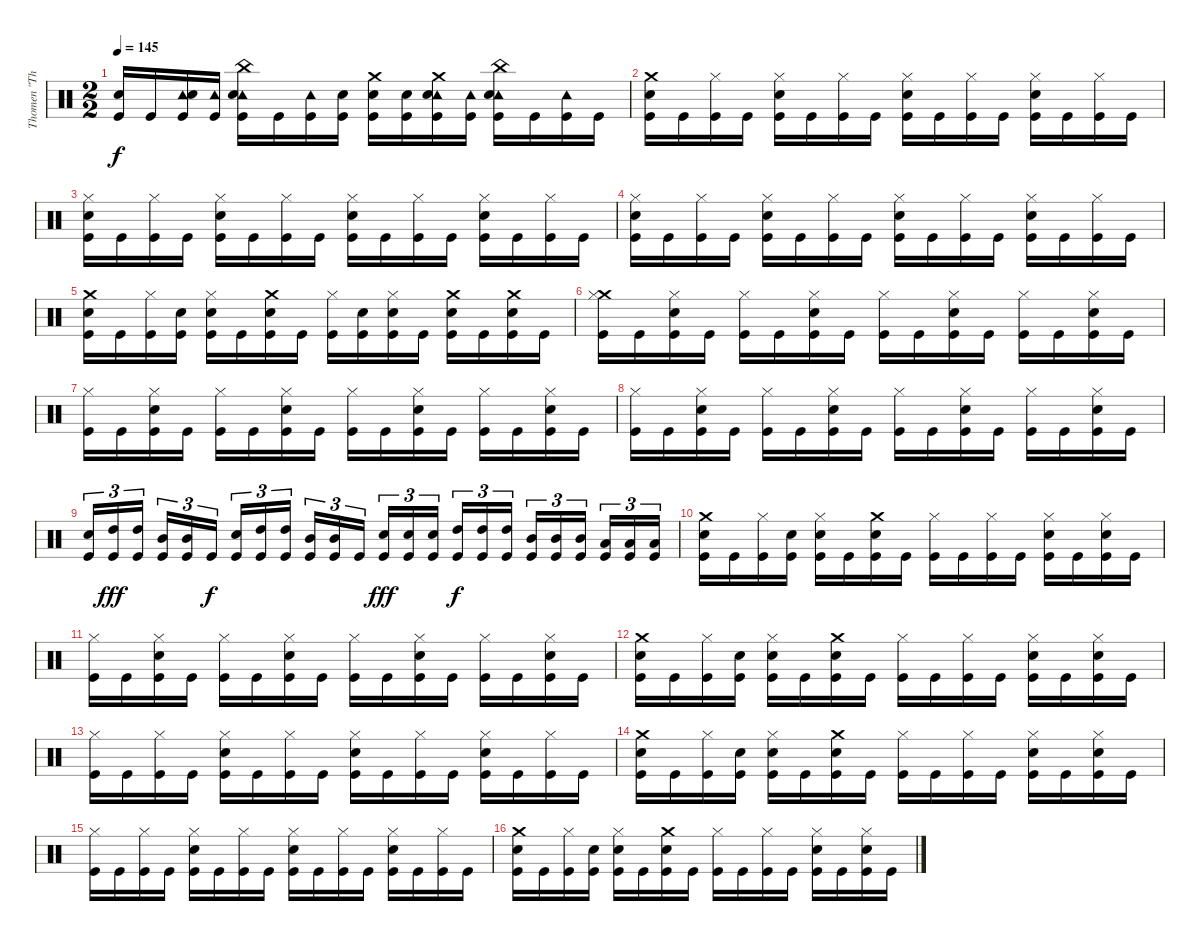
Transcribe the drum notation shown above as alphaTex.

\track ("Thomen \"The Omen\" Stauch" "Thomen \"Th") {instrument percussion}
\staff {score}
\articulation defaults
\ts (2 2)
\tempo 145
\clef neutral
\ks c
("Snare (hit) 2" "Kick (hit)").16{dy f} "Kick (hit)".16 ("Tambourine (hit)" "Snare (hit) 2" "Kick (hit)").16 ("Tambourine (hit)" "Kick (hit)").16 ("China (hit)" "Tambourine (hit)" "Snare (hit) 2" "Kick (hit)").16 "Kick (hit)".16 ("Tambourine (hit)" "Kick (hit)").16 ("Snare (hit) 2" "Kick (hit)").16 ("Crash medium (hit)" "Snare (hit) 2" "Kick (hit)").16 ("Snare (hit) 2" "Kick (hit)").16 ("Crash medium (hit)" "Tambourine (hit)" "Snare (hit) 2" "Kick (hit)").16 ("Tambourine (hit)" "Kick (hit)").16 ("China (hit)" "Tambourine (hit)" "Snare (hit) 2" "Kick (hit)").16 "Kick (hit)".16 ("Tambourine (hit)" "Kick (hit)").16 "Kick (hit)".16 |
("Crash medium (hit)" "Snare (hit) 2" "Kick (hit)").16 "Kick (hit)".16 ("Hi-Hat (closed)" "Kick (hit)").16 "Kick (hit)".16 ("Hi-Hat (closed)" "Snare (hit) 2" "Kick (hit)").16 "Kick (hit)".16 ("Hi-Hat (closed)" "Kick (hit)").16 "Kick (hit)".16 ("Hi-Hat (closed)" "Snare (hit) 2" "Kick (hit)").16 "Kick (hit)".16 ("Hi-Hat (closed)" "Kick (hit)").16 "Kick (hit)".16 ("Hi-Hat (closed)" "Snare (hit) 2" "Kick (hit)").16 "Kick (hit)".16 ("Hi-Hat (closed)" "Kick (hit)").16 "Kick (hit)".16 |
("Hi-Hat (closed)" "Snare (hit) 2" "Kick (hit)").16 "Kick (hit)".16 ("Hi-Hat (closed)" "Kick (hit)").16 "Kick (hit)".16 ("Hi-Hat (closed)" "Snare (hit) 2" "Kick (hit)").16 "Kick (hit)".16 ("Hi-Hat (closed)" "Kick (hit)").16 "Kick (hit)".16 ("Hi-Hat (closed)" "Snare (hit) 2" "Kick (hit)").16 "Kick (hit)".16 ("Hi-Hat (closed)" "Kick (hit)").16 "Kick (hit)".16 ("Hi-Hat (closed)" "Snare (hit) 2" "Kick (hit)").16 "Kick (hit)".16 ("Hi-Hat (closed)" "Kick (hit)").16 "Kick (hit)".16 |
("Hi-Hat (closed)" "Snare (hit) 2" "Kick (hit)").16 "Kick (hit)".16 ("Hi-Hat (closed)" "Kick (hit)").16 "Kick (hit)".16 ("Hi-Hat (closed)" "Snare (hit) 2" "Kick (hit)").16 "Kick (hit)".16 ("Hi-Hat (closed)" "Kick (hit)").16 "Kick (hit)".16 ("Hi-Hat (closed)" "Snare (hit) 2" "Kick (hit)").16 "Kick (hit)".16 ("Hi-Hat (closed)" "Kick (hit)").16 "Kick (hit)".16 ("Hi-Hat (closed)" "Snare (hit) 2" "Kick (hit)").16 "Kick (hit)".16 ("Hi-Hat (closed)" "Kick (hit)").16 "Kick (hit)".16 |
("Crash medium (hit)" "Snare (hit) 2" "Kick (hit)").16 "Kick (hit)".16 ("Hi-Hat (closed)" "Kick (hit)").16 ("Snare (hit) 2" "Kick (hit)").16 ("Hi-Hat (closed)" "Snare (hit) 2" "Kick (hit)").16 "Kick (hit)".16 ("Crash medium (hit)" "Snare (hit) 2" "Kick (hit)").16 "Kick (hit)".16 ("Hi-Hat (closed)" "Kick (hit)").16 ("Snare (hit) 2" "Kick (hit)").16 ("Hi-Hat (closed)" "Snare (hit) 2" "Kick (hit)").16 "Kick (hit)".16 ("Crash medium (hit)" "Snare (hit) 2" "Kick (hit)").16 "Kick (hit)".16 ("Crash medium (hit)" "Snare (hit) 2" "Kick (hit)").16 "Kick (hit)".16 |
("Crash medium (hit)" "Hi-Hat (closed)" "Kick (hit)").16 "Kick (hit)".16 ("Hi-Hat (closed)" "Snare (hit) 2" "Kick (hit)").16 "Kick (hit)".16 ("Hi-Hat (closed)" "Kick (hit)").16 "Kick (hit)".16 ("Hi-Hat (closed)" "Snare (hit) 2" "Kick (hit)").16 "Kick (hit)".16 ("Hi-Hat (closed)" "Kick (hit)").16 "Kick (hit)".16 ("Hi-Hat (closed)" "Snare (hit) 2" "Kick (hit)").16 "Kick (hit)".16 ("Hi-Hat (closed)" "Kick (hit)").16 "Kick (hit)".16 ("Hi-Hat (closed)" "Snare (hit) 2" "Kick (hit)").16 "Kick (hit)".16 |
("Hi-Hat (closed)" "Kick (hit)").16 "Kick (hit)".16 ("Hi-Hat (closed)" "Snare (hit) 2" "Kick (hit)").16 "Kick (hit)".16 ("Hi-Hat (closed)" "Kick (hit)").16 "Kick (hit)".16 ("Hi-Hat (closed)" "Snare (hit) 2" "Kick (hit)").16 "Kick (hit)".16 ("Hi-Hat (closed)" "Kick (hit)").16 "Kick (hit)".16 ("Hi-Hat (closed)" "Snare (hit) 2" "Kick (hit)").16 "Kick (hit)".16 ("Hi-Hat (closed)" "Kick (hit)").16 "Kick (hit)".16 ("Hi-Hat (closed)" "Snare (hit) 2" "Kick (hit)").16 "Kick (hit)".16 |
("Hi-Hat (closed)" "Kick (hit)").16 "Kick (hit)".16 ("Hi-Hat (closed)" "Snare (hit) 2" "Kick (hit)").16 "Kick (hit)".16 ("Hi-Hat (closed)" "Kick (hit)").16 "Kick (hit)".16 ("Hi-Hat (closed)" "Snare (hit) 2" "Kick (hit)").16 "Kick (hit)".16 ("Hi-Hat (closed)" "Kick (hit)").16 "Kick (hit)".16 ("Hi-Hat (closed)" "Snare (hit) 2" "Kick (hit)").16 "Kick (hit)".16 ("Hi-Hat (closed)" "Kick (hit)").16 "Kick (hit)".16 ("Hi-Hat (closed)" "Snare (hit) 2" "Kick (hit)").16 "Kick (hit)".16 |
("Snare (hit) 2" "Kick (hit)").16{tu (3 2)} ("High Tom (hit)" "Kick (hit)").16{tu (3 2) dy fff} ("High Tom (hit)" "Kick (hit)").16{tu (3 2)} ("Mid Tom (hit)" "Kick (hit)").16{tu (3 2)} ("Mid Tom (hit)" "Kick (hit)").16{tu (3 2)} "Kick (hit)".16{tu (3 2) dy f} ("Snare (hit) 2" "Kick (hit)").16{tu (3 2)} ("High Tom (hit)" "Kick (hit)").16{tu (3 2)} ("High Tom (hit)" "Kick (hit)").16{tu (3 2)} ("Mid Tom (hit)" "Kick (hit)").16{tu (3 2)} ("Mid Tom (hit)" "Kick (hit)").16{tu (3 2)} "Kick (hit)".16{tu (3 2)} ("Snare (hit) 2" "Kick (hit)").16{tu (3 2) dy fff} ("Snare (hit) 2" "Kick (hit)").16{tu (3 2)} ("Snare (hit) 2" "Kick (hit)").16{tu (3 2)} ("High Tom (hit)" "Kick (hit)").16{tu (3 2) dy f} ("High Tom (hit)" "Kick (hit)").16{tu (3 2)} ("High Tom (hit)" "Kick (hit)").16{tu (3 2)} ("Mid Tom (hit)" "Kick (hit)").16{tu (3 2)} ("Mid Tom (hit)" "Kick (hit)").16{tu (3 2)} ("Mid Tom (hit)" "Kick (hit)").16{tu (3 2)} ("Low Tom (hit)" "Kick (hit)").16{tu (3 2)} ("Low Tom (hit)" "Kick (hit)").16{tu (3 2)} ("Low Tom (hit)" "Kick (hit)").16{tu (3 2)} |
("Crash medium (hit)" "Snare (hit) 2" "Kick (hit)").16 "Kick (hit)".16 ("Hi-Hat (closed)" "Kick (hit)").16 ("Snare (hit) 2" "Kick (hit)").16 ("Hi-Hat (closed)" "Snare (hit) 2" "Kick (hit)").16 "Kick (hit)".16 ("Crash medium (hit)" "Snare (hit) 2" "Kick (hit)").16 "Kick (hit)".16 ("Hi-Hat (closed)" "Kick (hit)").16 "Kick (hit)".16 ("Hi-Hat (closed)" "Kick (hit)").16 "Kick (hit)".16 ("Hi-Hat (closed)" "Snare (hit) 2" "Kick (hit)").16 "Kick (hit)".16 ("Hi-Hat (closed)" "Snare (hit) 2" "Kick (hit)").16 "Kick (hit)".16 |
("Hi-Hat (closed)" "Kick (hit)").16 "Kick (hit)".16 ("Hi-Hat (closed)" "Snare (hit) 2" "Kick (hit)").16 "Kick (hit)".16 ("Hi-Hat (closed)" "Kick (hit)").16 "Kick (hit)".16 ("Hi-Hat (closed)" "Snare (hit) 2" "Kick (hit)").16 "Kick (hit)".16 ("Hi-Hat (closed)" "Kick (hit)").16 "Kick (hit)".16 ("Hi-Hat (closed)" "Snare (hit) 2" "Kick (hit)").16 "Kick (hit)".16 ("Hi-Hat (closed)" "Kick (hit)").16 "Kick (hit)".16 ("Hi-Hat (closed)" "Snare (hit) 2" "Kick (hit)").16 "Kick (hit)".16 |
("Crash medium (hit)" "Snare (hit) 2" "Kick (hit)").16 "Kick (hit)".16 ("Hi-Hat (closed)" "Kick (hit)").16 ("Snare (hit) 2" "Kick (hit)").16 ("Hi-Hat (closed)" "Snare (hit) 2" "Kick (hit)").16 "Kick (hit)".16 ("Crash medium (hit)" "Snare (hit) 2" "Kick (hit)").16 "Kick (hit)".16 ("Hi-Hat (closed)" "Kick (hit)").16 "Kick (hit)".16 ("Hi-Hat (closed)" "Kick (hit)").16 "Kick (hit)".16 ("Hi-Hat (closed)" "Snare (hit) 2" "Kick (hit)").16 "Kick (hit)".16 ("Hi-Hat (closed)" "Snare (hit) 2" "Kick (hit)").16 "Kick (hit)".16 |
("Hi-Hat (closed)" "Kick (hit)").16 "Kick (hit)".16 ("Hi-Hat (closed)" "Kick (hit)").16 "Kick (hit)".16 ("Hi-Hat (closed)" "Snare (hit) 2" "Kick (hit)").16 "Kick (hit)".16 ("Hi-Hat (closed)" "Kick (hit)").16 "Kick (hit)".16 ("Hi-Hat (closed)" "Snare (hit) 2" "Kick (hit)").16 "Kick (hit)".16 ("Hi-Hat (closed)" "Kick (hit)").16 "Kick (hit)".16 ("Hi-Hat (closed)" "Snare (hit) 2" "Kick (hit)").16 "Kick (hit)".16 ("Hi-Hat (closed)" "Kick (hit)").16 "Kick (hit)".16 |
("Crash medium (hit)" "Snare (hit) 2" "Kick (hit)").16 "Kick (hit)".16 ("Hi-Hat (closed)" "Kick (hit)").16 ("Snare (hit) 2" "Kick (hit)").16 ("Hi-Hat (closed)" "Snare (hit) 2" "Kick (hit)").16 "Kick (hit)".16 ("Crash medium (hit)" "Snare (hit) 2" "Kick (hit)").16 "Kick (hit)".16 ("Hi-Hat (closed)" "Kick (hit)").16 "Kick (hit)".16 ("Hi-Hat (closed)" "Kick (hit)").16 "Kick (hit)".16 ("Hi-Hat (closed)" "Snare (hit) 2" "Kick (hit)").16 "Kick (hit)".16 ("Hi-Hat (closed)" "Snare (hit) 2" "Kick (hit)").16 "Kick (hit)".16 |
("Hi-Hat (closed)" "Kick (hit)").16 "Kick (hit)".16 ("Hi-Hat (closed)" "Kick (hit)").16 "Kick (hit)".16 ("Hi-Hat (closed)" "Snare (hit) 2" "Kick (hit)").16 "Kick (hit)".16 ("Hi-Hat (closed)" "Kick (hit)").16 "Kick (hit)".16 ("Hi-Hat (closed)" "Snare (hit) 2" "Kick (hit)").16 "Kick (hit)".16 ("Hi-Hat (closed)" "Kick (hit)").16 "Kick (hit)".16 ("Hi-Hat (closed)" "Snare (hit) 2" "Kick (hit)").16 "Kick (hit)".16 ("Hi-Hat (closed)" "Kick (hit)").16 "Kick (hit)".16 |
("Crash medium (hit)" "Snare (hit) 2" "Kick (hit)").16 "Kick (hit)".16 ("Hi-Hat (closed)" "Kick (hit)").16 ("Snare (hit) 2" "Kick (hit)").16 ("Hi-Hat (closed)" "Snare (hit) 2" "Kick (hit)").16 "Kick (hit)".16 ("Crash medium (hit)" "Snare (hit) 2" "Kick (hit)").16 "Kick (hit)".16 ("Hi-Hat (closed)" "Kick (hit)").16 "Kick (hit)".16 ("Hi-Hat (closed)" "Kick (hit)").16 "Kick (hit)".16 ("Hi-Hat (closed)" "Snare (hit) 2" "Kick (hit)").16 "Kick (hit)".16 ("Hi-Hat (closed)" "Snare (hit) 2" "Kick (hit)").16 "Kick (hit)".16
